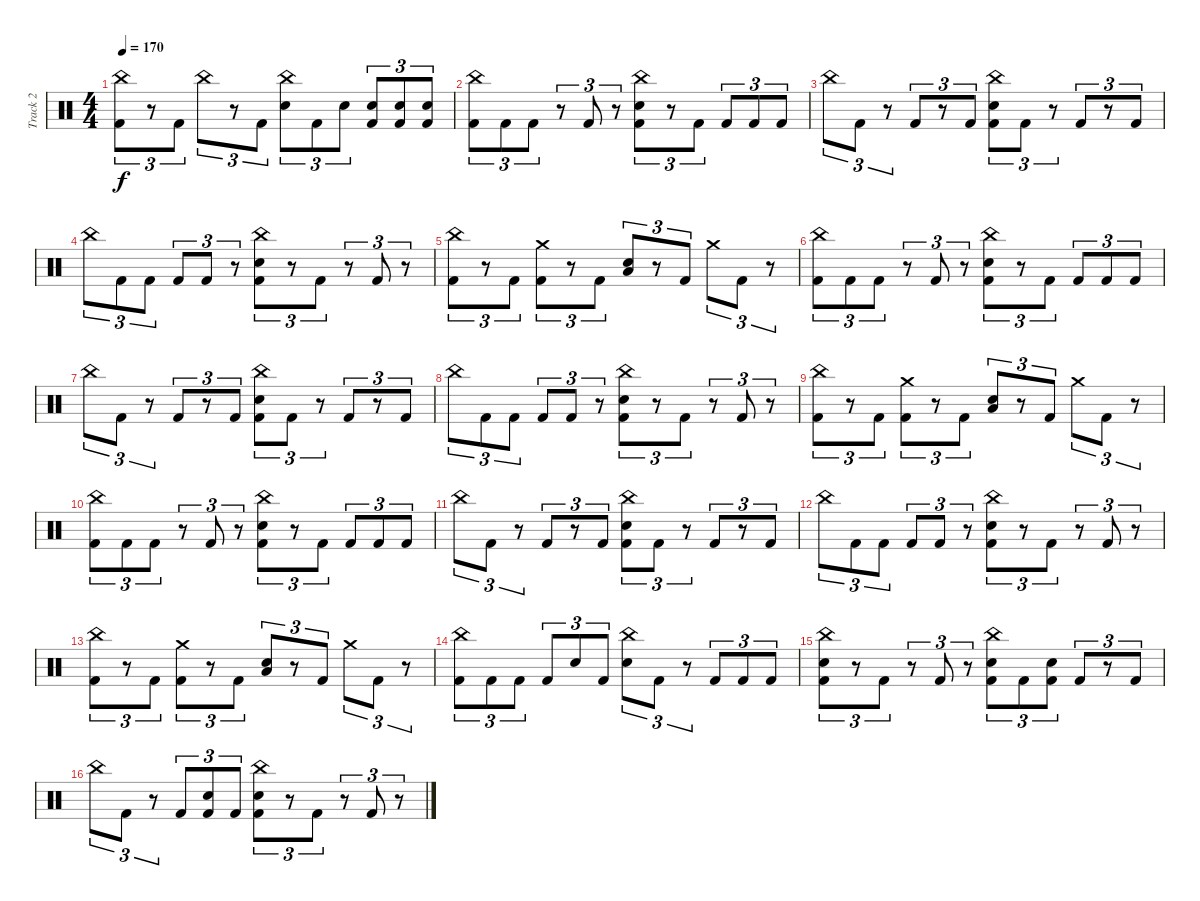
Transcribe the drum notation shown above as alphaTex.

\track ("Track 2" "Track 2") {instrument percussion}
\staff {score}
\articulation defaults
\ts (4 4)
\tempo 170
\clef neutral
\ks c
("China (hit)" "Kick (hit) 2").8{tu (3 2) dy f} r.8{tu (3 2)} "Kick (hit) 2".8{tu (3 2)} "China (hit)".8{tu (3 2)} r.8{tu (3 2)} "Kick (hit) 2".8{tu (3 2)} ("China (hit)" "Electric Snare (hit)").8{tu (3 2)} "Kick (hit) 2".8{tu (3 2)} "Electric Snare (hit)".8{tu (3 2)} ("Electric Snare (hit)" "Kick (hit) 2").8{tu (3 2)} ("Electric Snare (hit)" "Kick (hit) 2").8{tu (3 2)} ("Electric Snare (hit)" "Kick (hit) 2").8{tu (3 2)} |
("China (hit)" "Kick (hit) 2").8{tu (3 2)} "Kick (hit) 2".8{tu (3 2)} "Kick (hit) 2".8{tu (3 2)} r.8{tu (3 2)} "Kick (hit) 2".8{tu (3 2)} r.8{tu (3 2)} ("China (hit)" "Electric Snare (hit)" "Kick (hit) 2").8{tu (3 2)} r.8{tu (3 2)} "Kick (hit) 2".8{tu (3 2)} "Kick (hit) 2".8{tu (3 2)} "Kick (hit) 2".8{tu (3 2)} "Kick (hit) 2".8{tu (3 2)} |
"China (hit)".8{tu (3 2)} "Kick (hit) 2".8{tu (3 2)} r.8{tu (3 2)} "Kick (hit) 2".8{tu (3 2)} r.8{tu (3 2)} "Kick (hit) 2".8{tu (3 2)} ("China (hit)" "Electric Snare (hit)" "Kick (hit) 2").8{tu (3 2)} "Kick (hit) 2".8{tu (3 2)} r.8{tu (3 2)} "Kick (hit) 2".8{tu (3 2)} r.8{tu (3 2)} "Kick (hit) 2".8{tu (3 2)} |
"China (hit)".8{tu (3 2)} "Kick (hit) 2".8{tu (3 2)} "Kick (hit) 2".8{tu (3 2)} "Kick (hit) 2".8{tu (3 2)} "Kick (hit) 2".8{tu (3 2)} r.8{tu (3 2)} ("China (hit)" "Electric Snare (hit)" "Kick (hit) 2").8{tu (3 2)} r.8{tu (3 2)} "Kick (hit) 2".8{tu (3 2)} r.8{tu (3 2)} "Kick (hit) 2".8{tu (3 2)} r.8{tu (3 2)} |
("China (hit)" "Kick (hit) 2").8{tu (3 2)} r.8{tu (3 2)} "Kick (hit) 2".8{tu (3 2)} ("Crash medium (hit)" "Kick (hit) 2").8{tu (3 2)} r.8{tu (3 2)} "Kick (hit) 2".8{tu (3 2)} ("Electric Snare (hit)" "Low Floor Tom (hit)").8{tu (3 2)} r.8{tu (3 2)} "Kick (hit) 2".8{tu (3 2)} "Crash medium (hit)".8{tu (3 2)} "Kick (hit) 2".8{tu (3 2)} r.8{tu (3 2)} |
("China (hit)" "Kick (hit) 2").8{tu (3 2)} "Kick (hit) 2".8{tu (3 2)} "Kick (hit) 2".8{tu (3 2)} r.8{tu (3 2)} "Kick (hit) 2".8{tu (3 2)} r.8{tu (3 2)} ("China (hit)" "Electric Snare (hit)" "Kick (hit) 2").8{tu (3 2)} r.8{tu (3 2)} "Kick (hit) 2".8{tu (3 2)} "Kick (hit) 2".8{tu (3 2)} "Kick (hit) 2".8{tu (3 2)} "Kick (hit) 2".8{tu (3 2)} |
"China (hit)".8{tu (3 2)} "Kick (hit) 2".8{tu (3 2)} r.8{tu (3 2)} "Kick (hit) 2".8{tu (3 2)} r.8{tu (3 2)} "Kick (hit) 2".8{tu (3 2)} ("China (hit)" "Electric Snare (hit)" "Kick (hit) 2").8{tu (3 2)} "Kick (hit) 2".8{tu (3 2)} r.8{tu (3 2)} "Kick (hit) 2".8{tu (3 2)} r.8{tu (3 2)} "Kick (hit) 2".8{tu (3 2)} |
"China (hit)".8{tu (3 2)} "Kick (hit) 2".8{tu (3 2)} "Kick (hit) 2".8{tu (3 2)} "Kick (hit) 2".8{tu (3 2)} "Kick (hit) 2".8{tu (3 2)} r.8{tu (3 2)} ("China (hit)" "Electric Snare (hit)" "Kick (hit) 2").8{tu (3 2)} r.8{tu (3 2)} "Kick (hit) 2".8{tu (3 2)} r.8{tu (3 2)} "Kick (hit) 2".8{tu (3 2)} r.8{tu (3 2)} |
("China (hit)" "Kick (hit) 2").8{tu (3 2)} r.8{tu (3 2)} "Kick (hit) 2".8{tu (3 2)} ("Crash medium (hit)" "Kick (hit) 2").8{tu (3 2)} r.8{tu (3 2)} "Kick (hit) 2".8{tu (3 2)} ("Electric Snare (hit)" "Low Floor Tom (hit)").8{tu (3 2)} r.8{tu (3 2)} "Kick (hit) 2".8{tu (3 2)} "Crash medium (hit)".8{tu (3 2)} "Kick (hit) 2".8{tu (3 2)} r.8{tu (3 2)} |
("China (hit)" "Kick (hit) 2").8{tu (3 2)} "Kick (hit) 2".8{tu (3 2)} "Kick (hit) 2".8{tu (3 2)} r.8{tu (3 2)} "Kick (hit) 2".8{tu (3 2)} r.8{tu (3 2)} ("China (hit)" "Electric Snare (hit)" "Kick (hit) 2").8{tu (3 2)} r.8{tu (3 2)} "Kick (hit) 2".8{tu (3 2)} "Kick (hit) 2".8{tu (3 2)} "Kick (hit) 2".8{tu (3 2)} "Kick (hit) 2".8{tu (3 2)} |
"China (hit)".8{tu (3 2)} "Kick (hit) 2".8{tu (3 2)} r.8{tu (3 2)} "Kick (hit) 2".8{tu (3 2)} r.8{tu (3 2)} "Kick (hit) 2".8{tu (3 2)} ("China (hit)" "Electric Snare (hit)" "Kick (hit) 2").8{tu (3 2)} "Kick (hit) 2".8{tu (3 2)} r.8{tu (3 2)} "Kick (hit) 2".8{tu (3 2)} r.8{tu (3 2)} "Kick (hit) 2".8{tu (3 2)} |
"China (hit)".8{tu (3 2)} "Kick (hit) 2".8{tu (3 2)} "Kick (hit) 2".8{tu (3 2)} "Kick (hit) 2".8{tu (3 2)} "Kick (hit) 2".8{tu (3 2)} r.8{tu (3 2)} ("China (hit)" "Electric Snare (hit)" "Kick (hit) 2").8{tu (3 2)} r.8{tu (3 2)} "Kick (hit) 2".8{tu (3 2)} r.8{tu (3 2)} "Kick (hit) 2".8{tu (3 2)} r.8{tu (3 2)} |
("China (hit)" "Kick (hit) 2").8{tu (3 2)} r.8{tu (3 2)} "Kick (hit) 2".8{tu (3 2)} ("Crash medium (hit)" "Kick (hit) 2").8{tu (3 2)} r.8{tu (3 2)} "Kick (hit) 2".8{tu (3 2)} ("Electric Snare (hit)" "Low Floor Tom (hit)").8{tu (3 2)} r.8{tu (3 2)} "Kick (hit) 2".8{tu (3 2)} "Crash medium (hit)".8{tu (3 2)} "Kick (hit) 2".8{tu (3 2)} r.8{tu (3 2)} |
("China (hit)" "Kick (hit) 2").8{tu (3 2)} "Kick (hit) 2".8{tu (3 2)} "Kick (hit) 2".8{tu (3 2)} "Kick (hit) 2".8{tu (3 2)} "Electric Snare (hit)".8{tu (3 2)} "Kick (hit) 2".8{tu (3 2)} ("China (hit)" "Electric Snare (hit)").8{tu (3 2)} "Kick (hit) 2".8{tu (3 2)} r.8{tu (3 2)} "Kick (hit) 2".8{tu (3 2)} "Kick (hit) 2".8{tu (3 2)} "Kick (hit) 2".8{tu (3 2)} |
("China (hit)" "Electric Snare (hit)" "Kick (hit) 2").8{tu (3 2)} r.8{tu (3 2)} "Kick (hit) 2".8{tu (3 2)} r.8{tu (3 2)} "Kick (hit) 2".8{tu (3 2)} r.8{tu (3 2)} ("China (hit)" "Electric Snare (hit)" "Kick (hit) 2").8{tu (3 2)} "Kick (hit) 2".8{tu (3 2)} ("Electric Snare (hit)" "Kick (hit) 2").8{tu (3 2)} "Kick (hit) 2".8{tu (3 2)} r.8{tu (3 2)} "Kick (hit) 2".8{tu (3 2)} |
"China (hit)".8{tu (3 2)} "Kick (hit) 2".8{tu (3 2)} r.8{tu (3 2)} "Kick (hit) 2".8{tu (3 2)} ("Electric Snare (hit)" "Kick (hit) 2").8{tu (3 2)} "Kick (hit) 2".8{tu (3 2)} ("China (hit)" "Electric Snare (hit)" "Kick (hit) 2").8{tu (3 2)} r.8{tu (3 2)} "Kick (hit) 2".8{tu (3 2)} r.8{tu (3 2)} "Kick (hit) 2".8{tu (3 2)} r.8{tu (3 2)}
